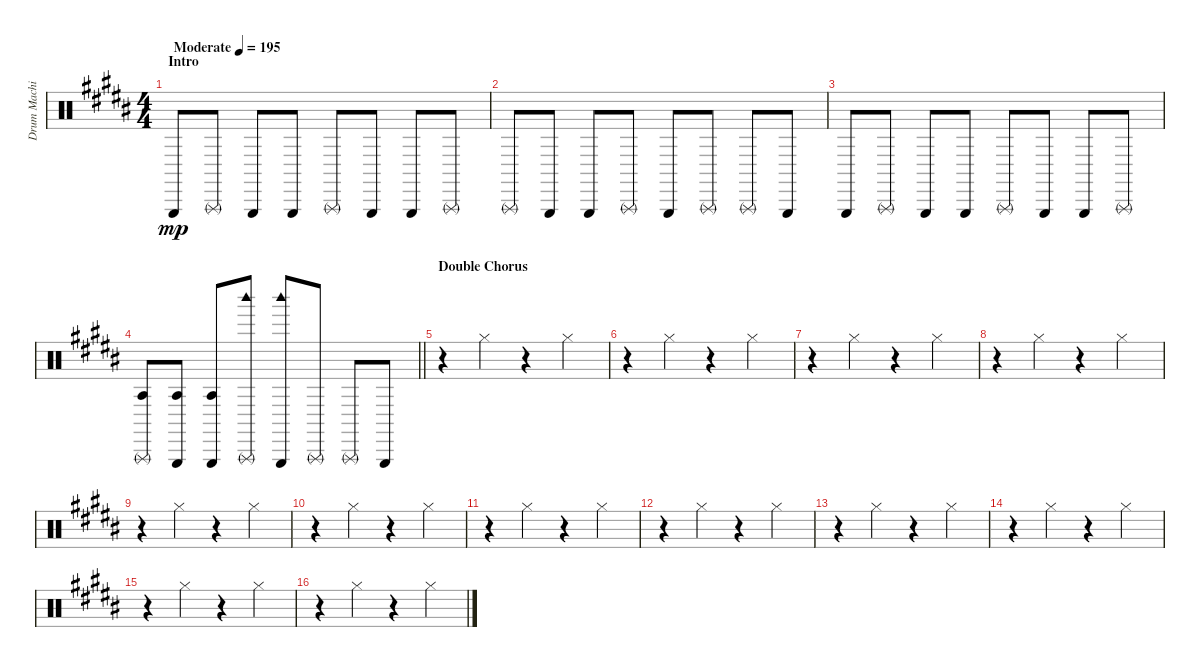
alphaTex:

\track ("Drum Machine" "Drum Machi") {instrument percussion}
\staff {score}
\articulation defaults
\ts (4 4)
\section ("" "Intro")
\tempo (195 "Moderate")
\clef neutral
\ks b "Triangle (hit)".8{dy mp} "Triangle (rnute)".8 "Triangle (hit)".8 "Triangle (hit)".8 "Triangle (rnute)".8 "Triangle (hit)".8 "Triangle (hit)".8 "Triangle (rnute)".8
|
"Triangle (rnute)".8 "Triangle (hit)".8 "Triangle (hit)".8 "Triangle (rnute)".8 "Triangle (hit)".8 "Triangle (rnute)".8 "Triangle (rnute)".8 "Triangle (hit)".8 |
"Triangle (hit)".8 "Triangle (rnute)".8 "Triangle (hit)".8 "Triangle (hit)".8 "Triangle (rnute)".8 "Triangle (hit)".8 "Triangle (hit)".8 "Triangle (rnute)".8 |
\barLineRight lightlight
("Triangle (rnute)" "Agogo tow (hit)").8 ("Triangle (hit)" "Agogo tow (hit)").8 ("Triangle (hit)" "Agogo tow (hit)").8 ("Triangle (rnute)" "Woodblock high (hit)").8 ("Triangle (hit)" "Woodblock high (hit)").8 "Triangle (rnute)".8 "Triangle (rnute)".8 "Triangle (hit)".8 |
\section ("" "Double Chorus")
r.4 "Hi-Hat (closed)".4 r.4 "Hi-Hat (closed)".4 |
r.4 "Hi-Hat (closed)".4 r.4 "Hi-Hat (closed)".4 |
r.4 "Hi-Hat (closed)".4 r.4 "Hi-Hat (closed)".4 |
r.4 "Hi-Hat (closed)".4 r.4 "Hi-Hat (closed)".4 |
r.4 "Hi-Hat (closed)".4 r.4 "Hi-Hat (closed)".4 |
r.4 "Hi-Hat (closed)".4 r.4 "Hi-Hat (closed)".4 |
r.4 "Hi-Hat (closed)".4 r.4 "Hi-Hat (closed)".4 |
r.4 "Hi-Hat (closed)".4 r.4 "Hi-Hat (closed)".4 |
r.4 "Hi-Hat (closed)".4 r.4 "Hi-Hat (closed)".4 |
r.4 "Hi-Hat (closed)".4 r.4 "Hi-Hat (closed)".4 |
r.4 "Hi-Hat (closed)".4 r.4 "Hi-Hat (closed)".4 |
r.4 "Hi-Hat (closed)".4 r.4 "Hi-Hat (closed)".4
